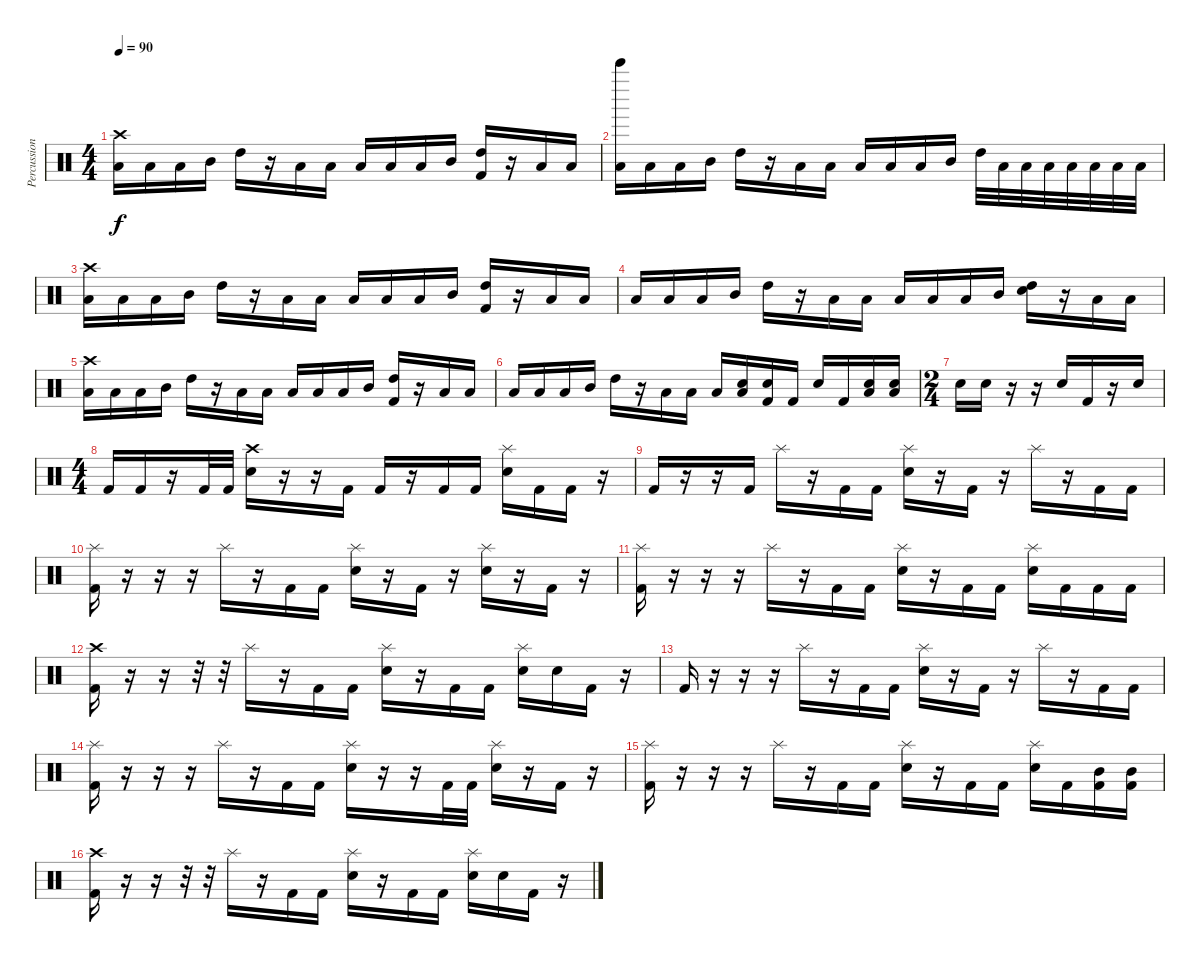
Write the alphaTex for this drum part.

\track ("Percussion" "Percussion") {instrument percussion}
\staff {score}
\articulation defaults
\ts (4 4)
\tempo 90
\clef neutral
\ks c
("Crash high (hit)" "Low Floor Tom (hit)").16{dy f} "Low Tom (hit)".16 "Low Floor Tom (hit)".16 "Mid Tom (hit)".16 "High Tom (hit)".16 r.16 "Low Floor Tom (hit)".16 "Low Tom (hit)".16 "Low Floor Tom (hit)".16 "Low Tom (hit)".16 "Low Floor Tom (hit)".16 "Mid Tom (hit)".16 ("Kick (hit) 2" "High Tom (hit)").16 r.16 "Low Floor Tom (hit)".16 "Low Tom (hit)".16 |
("Bell Tree (hit)" "Low Floor Tom (hit)").16 "Low Tom (hit)".16 "Low Floor Tom (hit)".16 "Mid Tom (hit)".16 "High Tom (hit)".16 r.16 "Low Floor Tom (hit)".16 "Low Tom (hit)".16 "Low Floor Tom (hit)".16 "Low Tom (hit)".16 "Low Floor Tom (hit)".16 "Mid Tom (hit)".16 "High Tom (hit)".32 "Low Tom (hit)".32 "Low Tom (hit)".32 "Low Tom (hit)".32 "Low Tom (hit)".32 "Low Floor Tom (hit)".32 "Low Floor Tom (hit)".32 "Low Floor Tom (hit)".32 |
("Crash high (hit)" "Low Floor Tom (hit)").16 "Low Tom (hit)".16 "Low Floor Tom (hit)".16 "Mid Tom (hit)".16 "High Tom (hit)".16 r.16 "Low Floor Tom (hit)".16 "Low Tom (hit)".16 "Low Floor Tom (hit)".16 "Low Tom (hit)".16 "Low Floor Tom (hit)".16 "Mid Tom (hit)".16 ("Kick (hit) 2" "High Tom (hit)").16 r.16 "Low Floor Tom (hit)".16 "Low Tom (hit)".16 |
"Low Floor Tom (hit)".16 "Low Tom (hit)".16 "Low Floor Tom (hit)".16 "Mid Tom (hit)".16 "High Tom (hit)".16 r.16 "Low Floor Tom (hit)".16 "Low Tom (hit)".16 "Low Floor Tom (hit)".16 "Low Tom (hit)".16 "Low Floor Tom (hit)".16 "Mid Tom (hit)".16 ("Hand Clap (hit)" "High Tom (hit)").16 r.16 "Low Floor Tom (hit)".16 "Low Tom (hit)".16 |
("Crash high (hit)" "Low Floor Tom (hit)").16 "Low Tom (hit)".16 "Low Floor Tom (hit)".16 "Mid Tom (hit)".16 "High Tom (hit)".16 r.16 "Low Floor Tom (hit)".16 "Low Tom (hit)".16 "Low Floor Tom (hit)".16 "Low Tom (hit)".16 "Low Floor Tom (hit)".16 "Mid Tom (hit)".16 ("Kick (hit) 2" "High Tom (hit)").16 r.16 "Low Floor Tom (hit)".16 "Low Tom (hit)".16 |
"Low Floor Tom (hit)".16 "Low Tom (hit)".16 "Low Floor Tom (hit)".16 "Mid Tom (hit)".16 "High Tom (hit)".16 r.16 "Low Floor Tom (hit)".16 "Low Tom (hit)".16 "Low Floor Tom (hit)".16 ("Snare (hit) 2" "Low Tom (hit)").16 ("Snare (hit) 2" "Kick (hit) 2").16 "Kick (hit) 2".16 "Snare (hit) 2".16 "Kick (hit) 2".16 ("Snare (hit) 2" "Low Floor Tom (hit)").16 ("Snare (hit) 2" "Low Tom (hit)").16 |
\ts (2 4)
"Snare (hit) 2".16 "Snare (hit) 2".16 r.16 r.16 "Snare (hit) 2".16 "Kick (hit) 2".16 r.16 "Snare (hit) 2".16 |
\ts (4 4)
"Kick (hit) 2".16 "Kick (hit) 2".16 r.16 "Kick (hit) 2".32 "Kick (hit) 2".32 ("Crash high (hit)" "Snare (hit) 2").16 r.16 r.16 "Kick (hit) 2".16 "Kick (hit) 2".16 r.16 "Kick (hit) 2".16 "Kick (hit) 2".16 ("Splash (hit)" "Snare (hit) 2").16 "Kick (hit) 2".16 "Kick (hit) 2".16 r.16 |
"Kick (hit) 2".16 r.16 r.16 "Kick (hit) 2".16 "Splash (hit)".16 r.16 "Kick (hit) 2".16 "Kick (hit) 2".16 ("Splash (hit)" "Snare (hit) 2").16 r.16 "Kick (hit) 2".16 r.16 "Splash (hit)".16 r.16 "Kick (hit) 2".16 "Kick (hit) 2".16 |
("Splash (hit)" "Kick (hit) 2").16 r.16 r.16 r.16 "Splash (hit)".16 r.16 "Kick (hit) 2".16 "Kick (hit) 2".16 ("Splash (hit)" "Snare (hit) 2").16 r.16 "Kick (hit) 2".16 r.16 ("Splash (hit)" "Snare (hit) 2").16 r.16 "Kick (hit) 2".16 r.16 |
("Splash (hit)" "Kick (hit) 2").16 r.16 r.16 r.16 "Splash (hit)".16 r.16 "Kick (hit) 2".16 "Kick (hit) 2".16 ("Splash (hit)" "Snare (hit) 2").16 r.16 "Kick (hit) 2".16 "Kick (hit) 2".16 ("Splash (hit)" "Snare (hit) 2").16 "Kick (hit) 2".16 "Kick (hit) 2".16 "Kick (hit) 2".16 |
("Crash high (hit)" "Kick (hit) 2").16 r.16 r.16 r.32 r.32 "Splash (hit)".16 r.16 "Kick (hit) 2".16 "Kick (hit) 2".16 ("Splash (hit)" "Snare (hit) 2").16 r.16 "Kick (hit) 2".16 "Kick (hit) 2".16 ("Splash (hit)" "Snare (hit) 2").16 "Snare (hit) 2".16 "Kick (hit) 2".16 r.16 |
"Kick (hit) 2".16 r.16 r.16 r.16 "Splash (hit)".16 r.16 "Kick (hit) 2".16 "Kick (hit) 2".16 ("Splash (hit)" "Snare (hit) 2").16 r.16 "Kick (hit) 2".16 r.16 "Splash (hit)".16 r.16 "Kick (hit) 2".16 "Kick (hit) 2".16 |
("Splash (hit)" "Kick (hit) 2").16 r.16 r.16 r.16 "Splash (hit)".16 r.16 "Kick (hit) 2".16 "Kick (hit) 2".16 ("Splash (hit)" "Snare (hit) 2").16 r.16 r.16 "Kick (hit) 2".32 "Kick (hit) 2".32 ("Splash (hit)" "Snare (hit) 2").16 r.16 "Kick (hit) 2".16 r.16 |
("Splash (hit)" "Kick (hit) 2").16 r.16 r.16 r.16 "Splash (hit)".16 r.16 "Kick (hit) 2".16 "Kick (hit) 2".16 ("Splash (hit)" "Snare (hit) 2").16 r.16 "Kick (hit) 2".16 "Kick (hit) 2".16 ("Splash (hit)" "Snare (hit) 2").16 "Kick (hit) 2".16 ("Mid Tom (hit)" "Kick (hit) 2").16 ("Mid Tom (hit)" "Kick (hit) 2").16 |
("Crash high (hit)" "Kick (hit) 2").16 r.16 r.16 r.32 r.32 "Splash (hit)".16 r.16 "Kick (hit) 2".16 "Kick (hit) 2".16 ("Splash (hit)" "Snare (hit) 2").16 r.16 "Kick (hit) 2".16 "Kick (hit) 2".16 ("Splash (hit)" "Snare (hit) 2").16 "Snare (hit) 2".16 "Kick (hit) 2".16 r.16
